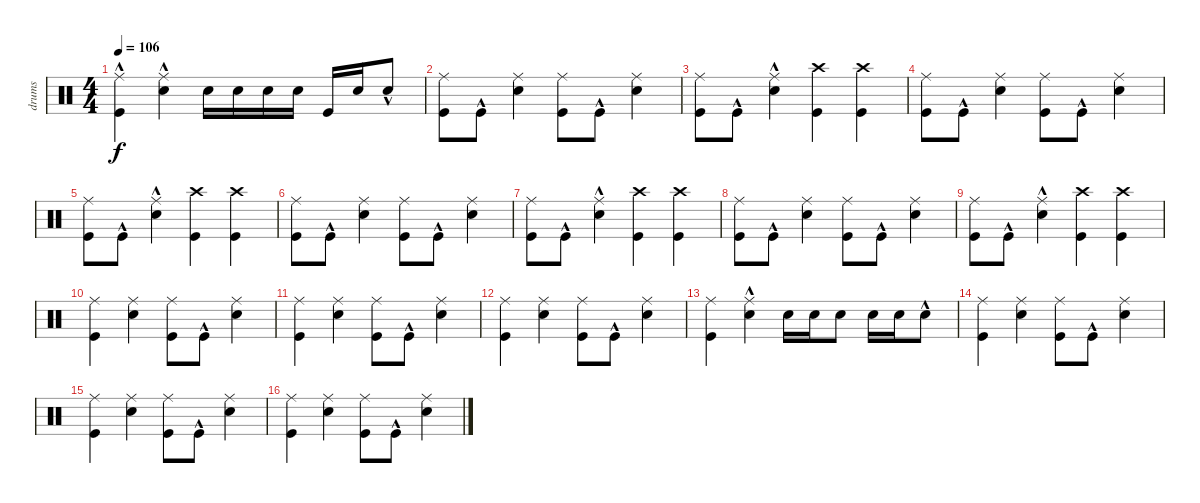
\track ("drums" "drums") {instrument percussion}
\staff {score}
\articulation defaults
\ts (4 4)
\tempo 106
\clef neutral
\ks c
("Kick (hit)"{hac} "Ride (middle)").4{dy f} ("Snare (hit) 2" "Ride (middle)"{hac}).4 "Snare (hit) 2".16 "Snare (hit) 2".16 "Snare (hit) 2".16 "Snare (hit) 2".16 "Kick (hit)".16 "Snare (hit) 2".16 "Snare (hit) 2"{hac}.8 |
("Kick (hit)" "Ride (middle)").8 "Kick (hit)"{hac}.8 ("Snare (hit) 2" "Ride (middle)").4 ("Kick (hit)" "Ride (middle)").8 "Kick (hit)"{hac}.8 ("Snare (hit) 2" "Ride (middle)").4 |
("Kick (hit)" "Ride (middle)").8 "Kick (hit)"{hac}.8 ("Snare (hit) 2" "Ride (middle)"{hac}).4 ("Kick (hit)" "Crash high (hit)").4 ("Kick (hit)" "Crash high (hit)").4 |
("Kick (hit)" "Ride (middle)").8 "Kick (hit)"{hac}.8 ("Snare (hit) 2" "Ride (middle)").4 ("Kick (hit)" "Ride (middle)").8 "Kick (hit)"{hac}.8 ("Snare (hit) 2" "Ride (middle)").4 |
("Kick (hit)" "Ride (middle)").8 "Kick (hit)"{hac}.8 ("Snare (hit) 2" "Ride (middle)"{hac}).4 ("Kick (hit)" "Crash high (hit)").4 ("Kick (hit)" "Crash high (hit)").4 |
("Kick (hit)" "Ride (middle)").8 "Kick (hit)"{hac}.8 ("Snare (hit) 2" "Ride (middle)").4 ("Kick (hit)" "Ride (middle)").8 "Kick (hit)"{hac}.8 ("Snare (hit) 2" "Ride (middle)").4 |
("Kick (hit)" "Ride (middle)").8 "Kick (hit)"{hac}.8 ("Snare (hit) 2" "Ride (middle)"{hac}).4 ("Kick (hit)" "Crash high (hit)").4 ("Kick (hit)" "Crash high (hit)").4 |
("Kick (hit)" "Ride (middle)").8 "Kick (hit)"{hac}.8 ("Snare (hit) 2" "Ride (middle)").4 ("Kick (hit)" "Ride (middle)").8 "Kick (hit)"{hac}.8 ("Snare (hit) 2" "Ride (middle)").4 |
("Kick (hit)" "Ride (middle)").8 "Kick (hit)"{hac}.8 ("Snare (hit) 2" "Ride (middle)"{hac}).4 ("Kick (hit)" "Crash high (hit)").4 ("Kick (hit)" "Crash high (hit)").4 |
("Kick (hit)" "Ride (middle)").4 ("Snare (hit) 2" "Ride (middle)").4 ("Kick (hit)" "Ride (middle)").8 "Kick (hit)"{hac}.8 ("Snare (hit) 2" "Ride (middle)").4 |
("Kick (hit)" "Ride (middle)").4 ("Snare (hit) 2" "Ride (middle)").4 ("Kick (hit)" "Ride (middle)").8 "Kick (hit)"{hac}.8 ("Snare (hit) 2" "Ride (middle)").4 |
("Kick (hit)" "Ride (middle)").4 ("Snare (hit) 2" "Ride (middle)").4 ("Kick (hit)" "Ride (middle)").8 "Kick (hit)"{hac}.8 ("Snare (hit) 2" "Ride (middle)").4 |
("Kick (hit)" "Ride (middle)").4 ("Snare (hit) 2" "Ride (middle)"{hac}).4 "Snare (hit) 2".16 "Snare (hit) 2".16 "Snare (hit) 2".8 "Snare (hit) 2".16 "Snare (hit) 2".16 "Snare (hit) 2"{hac}.8 |
("Kick (hit)" "Ride (middle)").4 ("Snare (hit) 2" "Ride (middle)").4 ("Kick (hit)" "Ride (middle)").8 "Kick (hit)"{hac}.8 ("Snare (hit) 2" "Ride (middle)").4 |
("Kick (hit)" "Ride (middle)").4 ("Snare (hit) 2" "Ride (middle)").4 ("Kick (hit)" "Ride (middle)").8 "Kick (hit)"{hac}.8 ("Snare (hit) 2" "Ride (middle)").4 |
("Kick (hit)" "Ride (middle)").4 ("Snare (hit) 2" "Ride (middle)").4 ("Kick (hit)" "Ride (middle)").8 "Kick (hit)"{hac}.8 ("Snare (hit) 2" "Ride (middle)").4
